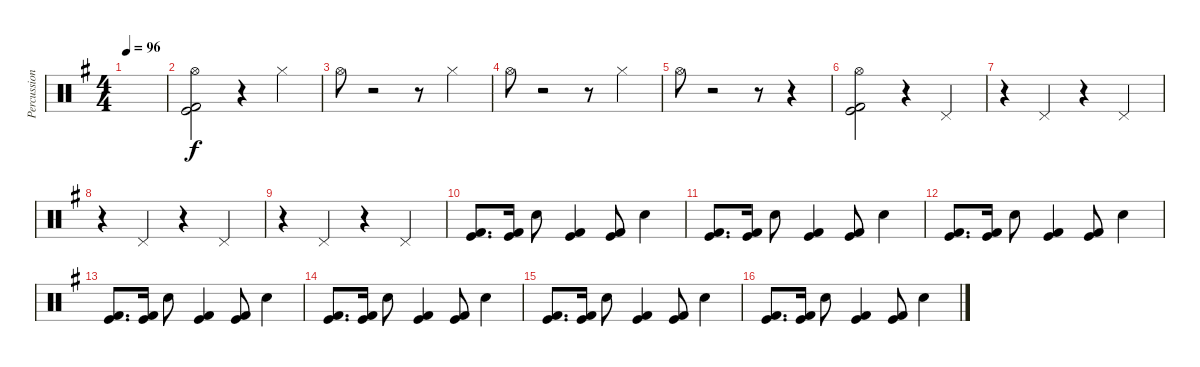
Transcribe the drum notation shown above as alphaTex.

\track ("Percussion" "Percussion") {instrument percussion}
\staff {score}
\articulation defaults
\ts (4 4)
\tempo 96
\clef neutral
\ks g
|
("Hi-Hat (open)" "Kick (hit) 2" "Kick (hit)").2 r.4 "Hi-Hat (closed)".4 |
"Hi-Hat (open)".8 r.2 r.8 "Hi-Hat (closed)".4 |
"Hi-Hat (open)".8 r.2 r.8 "Hi-Hat (closed)".4 |
"Hi-Hat (open)".8 r.2 r.8 r.4 |
("Hi-Hat (open)" "Kick (hit) 2" "Kick (hit)").2 r.4 "Pedal Hi-Hat (hit)".4 |
r.4 "Pedal Hi-Hat (hit)".4 r.4 "Pedal Hi-Hat (hit)".4 |
r.4 "Pedal Hi-Hat (hit)".4 r.4 "Pedal Hi-Hat (hit)".4 |
r.4 "Pedal Hi-Hat (hit)".4 r.4 "Pedal Hi-Hat (hit)".4 |
("Kick (hit) 2" "Kick (hit)").8{d} ("Kick (hit) 2" "Kick (hit)").16 "Electric Snare (hit)".8 ("Kick (hit) 2" "Kick (hit)").4 ("Kick (hit) 2" "Kick (hit)").8 "Electric Snare (hit)".4 |
("Kick (hit) 2" "Kick (hit)").8{d} ("Kick (hit) 2" "Kick (hit)").16 "Electric Snare (hit)".8 ("Kick (hit) 2" "Kick (hit)").4 ("Kick (hit) 2" "Kick (hit)").8 "Electric Snare (hit)".4 |
("Kick (hit) 2" "Kick (hit)").8{d} ("Kick (hit) 2" "Kick (hit)").16 "Electric Snare (hit)".8 ("Kick (hit) 2" "Kick (hit)").4 ("Kick (hit) 2" "Kick (hit)").8 "Electric Snare (hit)".4 |
("Kick (hit) 2" "Kick (hit)").8{d} ("Kick (hit) 2" "Kick (hit)").16 "Electric Snare (hit)".8 ("Kick (hit) 2" "Kick (hit)").4 ("Kick (hit) 2" "Kick (hit)").8 "Electric Snare (hit)".4 |
("Kick (hit) 2" "Kick (hit)").8{d} ("Kick (hit) 2" "Kick (hit)").16 "Electric Snare (hit)".8 ("Kick (hit) 2" "Kick (hit)").4 ("Kick (hit) 2" "Kick (hit)").8 "Electric Snare (hit)".4 |
("Kick (hit) 2" "Kick (hit)").8{d} ("Kick (hit) 2" "Kick (hit)").16 "Electric Snare (hit)".8 ("Kick (hit) 2" "Kick (hit)").4 ("Kick (hit) 2" "Kick (hit)").8 "Electric Snare (hit)".4 |
("Kick (hit) 2" "Kick (hit)").8{d} ("Kick (hit) 2" "Kick (hit)").16 "Electric Snare (hit)".8 ("Kick (hit) 2" "Kick (hit)").4 ("Kick (hit) 2" "Kick (hit)").8 "Electric Snare (hit)".4
